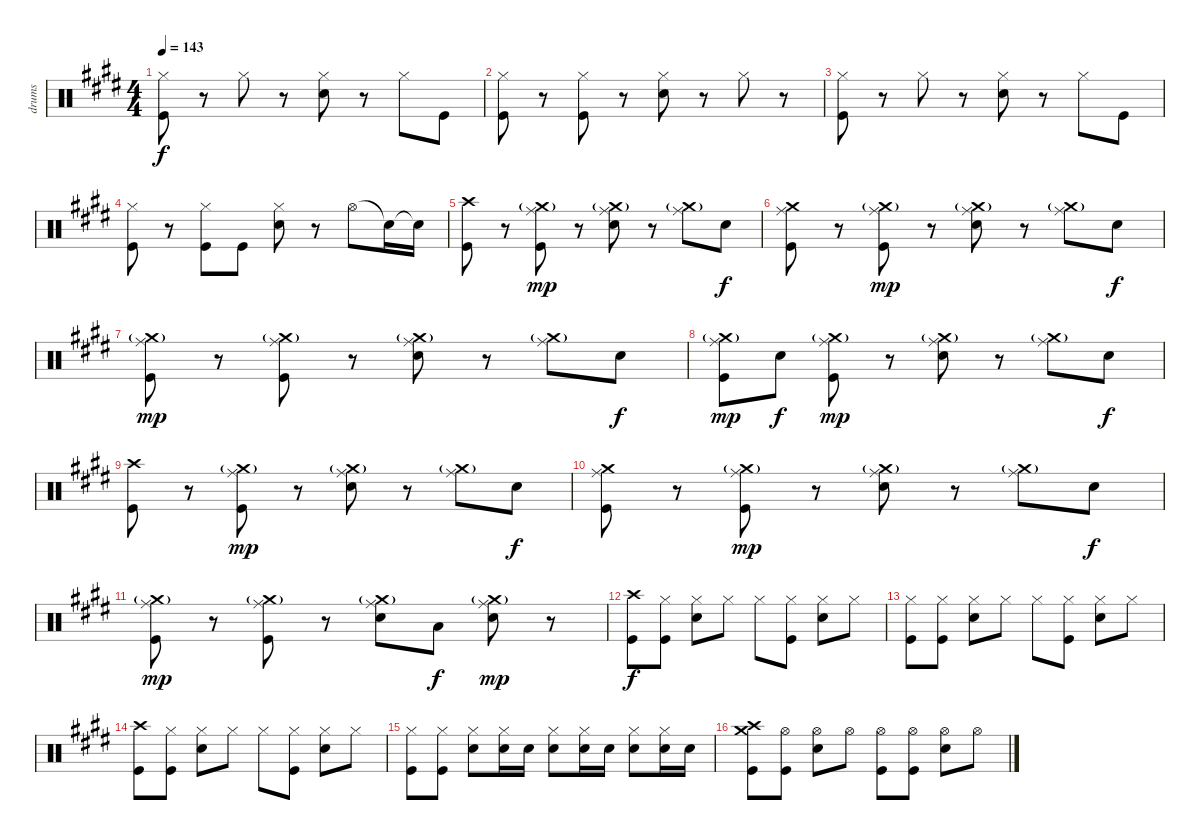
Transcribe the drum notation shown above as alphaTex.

\track ("drums" "drums") {instrument percussion}
\staff {score}
\articulation defaults
\ts (4 4)
\tempo 143
\clef neutral
\ks c#minor
("Hi-Hat (closed)" "Kick (hit)").8{dy f} r.8 "Hi-Hat (closed)".8 r.8 ("Hi-Hat (closed)" "Electric Snare (hit)").8 r.8 "Hi-Hat (closed)".8 "Kick (hit)".8 |
("Hi-Hat (closed)" "Kick (hit)").8 r.8 ("Hi-Hat (closed)" "Kick (hit)").8 r.8 ("Hi-Hat (closed)" "Electric Snare (hit)").8 r.8 "Hi-Hat (closed)".8 r.8 |
("Hi-Hat (closed)" "Kick (hit)").8 r.8 "Hi-Hat (closed)".8 r.8 ("Hi-Hat (closed)" "Electric Snare (hit)").8 r.8 "Hi-Hat (closed)".8 "Kick (hit)".8 |
("Hi-Hat (closed)" "Kick (hit)").8 r.8 ("Hi-Hat (closed)" "Kick (hit)").8 "Kick (hit)".8 ("Hi-Hat (closed)" "Electric Snare (hit)").8 r.8 "Hi-Hat (open)".8 "Snare (hit)"{t}.16 "Snare (hit)"{t}.16 |
("Crash high (hit)" "Kick (hit)").8 r.8 ("Ride (middle)" "Crash medium (hit)"{g} "Kick (hit)").8{dy mp} r.8 ("Ride (middle)" "Crash medium (hit)"{g} "Electric Snare (hit)").8 r.8 ("Ride (middle)" "Crash medium (hit)"{g}).8 "Electric Snare (hit)".8{dy f} |
("Crash medium (hit)" "Ride (middle)" "Kick (hit)").8 r.8 ("Ride (middle)" "Crash medium (hit)"{g} "Kick (hit)").8{dy mp} r.8 ("Ride (middle)" "Crash medium (hit)"{g} "Electric Snare (hit)").8 r.8 ("Ride (middle)" "Crash medium (hit)"{g}).8 "Electric Snare (hit)".8{dy f} |
("Crash medium (hit)"{g} "Ride (middle)" "Kick (hit)").8{dy mp} r.8 ("Crash medium (hit)"{g} "Ride (middle)" "Kick (hit)").8 r.8 ("Crash medium (hit)"{g} "Ride (middle)" "Electric Snare (hit)").8 r.8 ("Crash medium (hit)"{g} "Ride (middle)").8 "Electric Snare (hit)".8{dy f} |
("Crash medium (hit)"{g} "Ride (middle)" "Kick (hit)").8{dy mp} "Electric Snare (hit)".8{dy f} ("Crash medium (hit)"{g} "Ride (middle)" "Kick (hit)").8{dy mp} r.8 ("Crash medium (hit)"{g} "Ride (middle)" "Electric Snare (hit)").8 r.8 ("Crash medium (hit)"{g} "Ride (middle)").8 "Electric Snare (hit)".8{dy f} |
("Crash high (hit)" "Kick (hit)").8 r.8 ("Ride (middle)" "Crash medium (hit)"{g} "Kick (hit)").8{dy mp} r.8 ("Ride (middle)" "Crash medium (hit)"{g} "Electric Snare (hit)").8 r.8 ("Ride (middle)" "Crash medium (hit)"{g}).8 "Electric Snare (hit)".8{dy f} |
("Crash medium (hit)" "Ride (middle)" "Kick (hit)").8 r.8 ("Ride (middle)" "Crash medium (hit)"{g} "Kick (hit)").8{dy mp} r.8 ("Ride (middle)" "Crash medium (hit)"{g} "Electric Snare (hit)").8 r.8 ("Ride (middle)" "Crash medium (hit)"{g}).8 "Electric Snare (hit)".8{dy f} |
("Crash medium (hit)"{g} "Ride (middle)" "Kick (hit)").8{dy mp} r.8 ("Crash medium (hit)"{g} "Ride (middle)" "Kick (hit)").8 r.8 ("Crash medium (hit)"{g} "Ride (middle)" "Electric Snare (hit)").8 "Low Tom (hit)".8{dy f} ("Crash medium (hit)"{g} "Ride (middle)" "Electric Snare (hit)").8{dy mp} r.8 |
("Crash high (hit)" "Kick (hit)").8{dy f} ("Hi-Hat (closed)" "Kick (hit)").8 ("Hi-Hat (closed)" "Electric Snare (hit)").8 "Hi-Hat (closed)".8 "Hi-Hat (closed)".8 ("Hi-Hat (closed)" "Kick (hit)").8 ("Hi-Hat (closed)" "Electric Snare (hit)").8 "Hi-Hat (closed)".8 |
("Hi-Hat (closed)" "Kick (hit)").8 ("Hi-Hat (closed)" "Kick (hit)").8 ("Hi-Hat (closed)" "Electric Snare (hit)").8 "Hi-Hat (closed)".8 "Hi-Hat (closed)".8 ("Hi-Hat (closed)" "Kick (hit)").8 ("Hi-Hat (closed)" "Electric Snare (hit)").8 "Hi-Hat (closed)".8 |
("Crash high (hit)" "Kick (hit)").8 ("Hi-Hat (closed)" "Kick (hit)").8 ("Hi-Hat (closed)" "Electric Snare (hit)").8 "Hi-Hat (closed)".8 "Hi-Hat (closed)".8 ("Hi-Hat (closed)" "Kick (hit)").8 ("Hi-Hat (closed)" "Electric Snare (hit)").8 "Hi-Hat (closed)".8 |
("Hi-Hat (closed)" "Kick (hit)").8 ("Hi-Hat (closed)" "Kick (hit)").8 ("Hi-Hat (closed)" "Electric Snare (hit)").8 ("Hi-Hat (closed)" "Electric Snare (hit)").16 "Electric Snare (hit)".16 ("Hi-Hat (closed)" "Electric Snare (hit)").8 ("Hi-Hat (closed)" "Electric Snare (hit)").16 "Electric Snare (hit)".16 ("Hi-Hat (closed)" "Electric Snare (hit)").8 ("Hi-Hat (closed)" "Electric Snare (hit)").16 "Electric Snare (hit)".16 |
("Crash medium (hit)" "Crash high (hit)" "Kick (hit)").8 ("Hi-Hat (open)" "Kick (hit)").8 ("Hi-Hat (open)" "Electric Snare (hit)").8 "Hi-Hat (open)".8 ("Hi-Hat (open)" "Kick (hit)").8 ("Hi-Hat (open)" "Kick (hit)").8 ("Hi-Hat (open)" "Electric Snare (hit)").8 "Hi-Hat (open)".8
